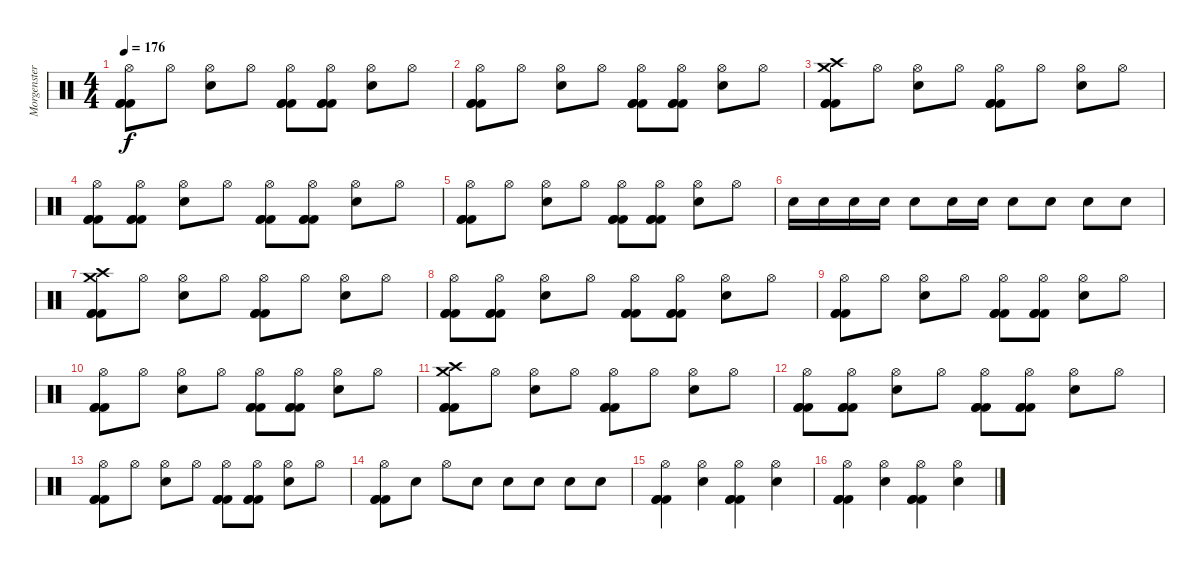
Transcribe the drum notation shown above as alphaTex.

\track ("Morgenstern (Schlagzeug)" "Morgenster") {instrument percussion}
\staff {score}
\articulation defaults
\ts (4 4)
\tempo 176
\clef neutral
\ks c
("Hi-Hat (open)" "Kick (hit) 2" "Kick (hit) 2" "Kick (hit) 2").8{dy f} "Hi-Hat (open)".8 ("Hi-Hat (open)" "Snare (hit) 2").8 "Hi-Hat (open)".8 ("Hi-Hat (open)" "Kick (hit) 2" "Kick (hit) 2" "Kick (hit) 2").8 ("Hi-Hat (open)" "Kick (hit) 2" "Kick (hit) 2" "Kick (hit) 2").8 ("Hi-Hat (open)" "Snare (hit) 2").8 "Hi-Hat (open)".8 |
("Hi-Hat (open)" "Kick (hit) 2" "Kick (hit) 2" "Kick (hit) 2").8 "Hi-Hat (open)".8 ("Hi-Hat (open)" "Snare (hit) 2").8 "Hi-Hat (open)".8 ("Hi-Hat (open)" "Kick (hit) 2" "Kick (hit) 2" "Kick (hit) 2").8 ("Hi-Hat (open)" "Kick (hit) 2" "Kick (hit) 2" "Kick (hit) 2").8 ("Hi-Hat (open)" "Snare (hit) 2").8 "Hi-Hat (open)".8 |
("Crash high (hit)" "Crash medium (hit)" "Kick (hit) 2" "Kick (hit) 2" "Kick (hit) 2").8 "Hi-Hat (open)".8 ("Hi-Hat (open)" "Snare (hit) 2").8 "Hi-Hat (open)".8 ("Hi-Hat (open)" "Kick (hit) 2" "Kick (hit) 2" "Kick (hit) 2").8 "Hi-Hat (open)".8 ("Hi-Hat (open)" "Snare (hit) 2").8 "Hi-Hat (open)".8 |
("Hi-Hat (open)" "Kick (hit) 2" "Kick (hit) 2" "Kick (hit) 2").8 ("Hi-Hat (open)" "Kick (hit) 2" "Kick (hit) 2" "Kick (hit) 2").8 ("Hi-Hat (open)" "Snare (hit) 2").8 "Hi-Hat (open)".8 ("Hi-Hat (open)" "Kick (hit) 2" "Kick (hit) 2" "Kick (hit) 2").8 ("Hi-Hat (open)" "Kick (hit) 2" "Kick (hit) 2" "Kick (hit) 2").8 ("Hi-Hat (open)" "Snare (hit) 2").8 "Hi-Hat (open)".8 |
("Hi-Hat (open)" "Kick (hit) 2" "Kick (hit) 2" "Kick (hit) 2").8 "Hi-Hat (open)".8 ("Hi-Hat (open)" "Snare (hit) 2").8 "Hi-Hat (open)".8 ("Hi-Hat (open)" "Kick (hit) 2" "Kick (hit) 2" "Kick (hit) 2").8 ("Hi-Hat (open)" "Kick (hit) 2" "Kick (hit) 2" "Kick (hit) 2").8 ("Hi-Hat (open)" "Snare (hit) 2").8 "Hi-Hat (open)".8 |
"Snare (hit) 2".16 "Snare (hit) 2".16 "Snare (hit) 2".16 "Snare (hit) 2".16 "Snare (hit) 2".8 "Snare (hit) 2".16 "Snare (hit) 2".16 "Snare (hit) 2".8 "Snare (hit) 2".8 "Snare (hit) 2".8 "Snare (hit) 2".8 |
("Crash high (hit)" "Crash medium (hit)" "Kick (hit) 2" "Kick (hit) 2" "Kick (hit) 2").8 "Hi-Hat (open)".8 ("Hi-Hat (open)" "Snare (hit) 2").8 "Hi-Hat (open)".8 ("Hi-Hat (open)" "Kick (hit) 2" "Kick (hit) 2" "Kick (hit) 2").8 "Hi-Hat (open)".8 ("Hi-Hat (open)" "Snare (hit) 2").8 "Hi-Hat (open)".8 |
("Hi-Hat (open)" "Kick (hit) 2" "Kick (hit) 2" "Kick (hit) 2").8 ("Hi-Hat (open)" "Kick (hit) 2" "Kick (hit) 2" "Kick (hit) 2").8 ("Hi-Hat (open)" "Snare (hit) 2").8 "Hi-Hat (open)".8 ("Hi-Hat (open)" "Kick (hit) 2" "Kick (hit) 2" "Kick (hit) 2").8 ("Hi-Hat (open)" "Kick (hit) 2" "Kick (hit) 2" "Kick (hit) 2").8 ("Hi-Hat (open)" "Snare (hit) 2").8 "Hi-Hat (open)".8 |
("Hi-Hat (open)" "Kick (hit) 2" "Kick (hit) 2" "Kick (hit) 2").8 "Hi-Hat (open)".8 ("Hi-Hat (open)" "Snare (hit) 2").8 "Hi-Hat (open)".8 ("Hi-Hat (open)" "Kick (hit) 2" "Kick (hit) 2" "Kick (hit) 2").8 ("Hi-Hat (open)" "Kick (hit) 2" "Kick (hit) 2" "Kick (hit) 2").8 ("Hi-Hat (open)" "Snare (hit) 2").8 "Hi-Hat (open)".8 |
("Hi-Hat (open)" "Kick (hit) 2" "Kick (hit) 2" "Kick (hit) 2").8 "Hi-Hat (open)".8 ("Hi-Hat (open)" "Snare (hit) 2").8 "Hi-Hat (open)".8 ("Hi-Hat (open)" "Kick (hit) 2" "Kick (hit) 2" "Kick (hit) 2").8 ("Hi-Hat (open)" "Kick (hit) 2" "Kick (hit) 2" "Kick (hit) 2").8 ("Hi-Hat (open)" "Snare (hit) 2").8 "Hi-Hat (open)".8 |
("Crash high (hit)" "Crash medium (hit)" "Kick (hit) 2" "Kick (hit) 2" "Kick (hit) 2").8 "Hi-Hat (open)".8 ("Hi-Hat (open)" "Snare (hit) 2").8 "Hi-Hat (open)".8 ("Hi-Hat (open)" "Kick (hit) 2" "Kick (hit) 2" "Kick (hit) 2").8 "Hi-Hat (open)".8 ("Hi-Hat (open)" "Snare (hit) 2").8 "Hi-Hat (open)".8 |
("Hi-Hat (open)" "Kick (hit) 2" "Kick (hit) 2" "Kick (hit) 2").8 ("Hi-Hat (open)" "Kick (hit) 2" "Kick (hit) 2" "Kick (hit) 2").8 ("Hi-Hat (open)" "Snare (hit) 2").8 "Hi-Hat (open)".8 ("Hi-Hat (open)" "Kick (hit) 2" "Kick (hit) 2" "Kick (hit) 2").8 ("Hi-Hat (open)" "Kick (hit) 2" "Kick (hit) 2" "Kick (hit) 2").8 ("Hi-Hat (open)" "Snare (hit) 2").8 "Hi-Hat (open)".8 |
("Hi-Hat (open)" "Kick (hit) 2" "Kick (hit) 2" "Kick (hit) 2").8 "Hi-Hat (open)".8 ("Hi-Hat (open)" "Snare (hit) 2").8 "Hi-Hat (open)".8 ("Hi-Hat (open)" "Kick (hit) 2" "Kick (hit) 2" "Kick (hit) 2").8 ("Hi-Hat (open)" "Kick (hit) 2" "Kick (hit) 2" "Kick (hit) 2").8 ("Hi-Hat (open)" "Snare (hit) 2").8 "Hi-Hat (open)".8 |
("Hi-Hat (open)" "Kick (hit) 2" "Kick (hit) 2" "Kick (hit) 2").8 "Snare (hit) 2".8 "Hi-Hat (open)".8 "Snare (hit) 2".8 "Snare (hit) 2".8 "Snare (hit) 2".8 "Snare (hit) 2".8 "Snare (hit) 2".8 |
("Hi-Hat (open)" "Kick (hit) 2" "Kick (hit) 2" "Kick (hit) 2").4 ("Hi-Hat (open)" "Snare (hit) 2").4 ("Hi-Hat (open)" "Kick (hit) 2" "Kick (hit) 2" "Kick (hit) 2").4 ("Hi-Hat (open)" "Snare (hit) 2").4 |
("Hi-Hat (open)" "Kick (hit) 2" "Kick (hit) 2" "Kick (hit) 2").4 ("Hi-Hat (open)" "Snare (hit) 2").4 ("Hi-Hat (open)" "Kick (hit) 2" "Kick (hit) 2" "Kick (hit) 2").4 ("Hi-Hat (open)" "Snare (hit) 2").4
